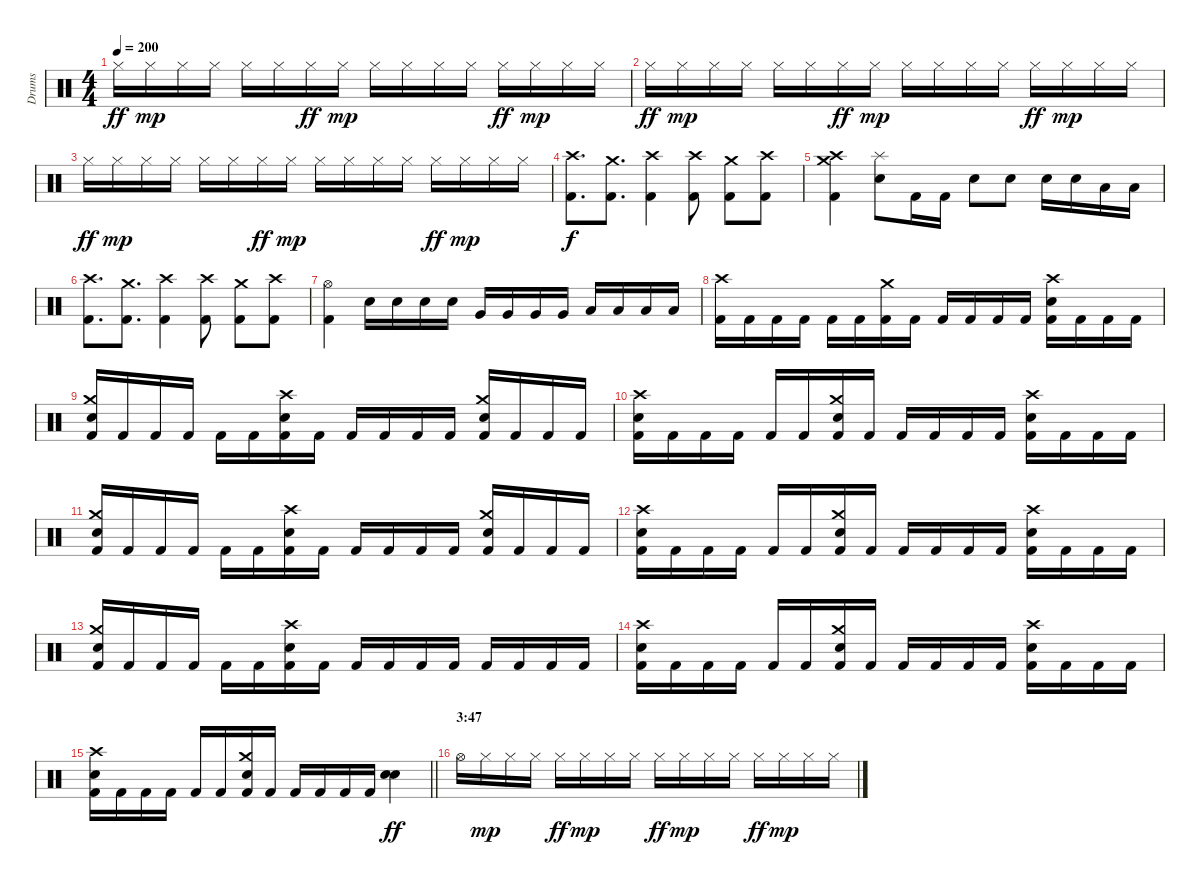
\track ("Drums" "Drums") {instrument percussion}
\staff {score}
\articulation defaults
\ts (4 4)
\tempo 200
\clef neutral
\ks c "Hi-Hat (closed)".16{dy ff} "Hi-Hat (closed)".16{dy mp} "Hi-Hat (closed)".16 "Hi-Hat (closed)".16 "Hi-Hat (closed)".16 "Hi-Hat (closed)".16 "Hi-Hat (closed)".16{dy ff} "Hi-Hat (closed)".16{dy mp} "Hi-Hat (closed)".16 "Hi-Hat (closed)".16 "Hi-Hat (closed)".16 "Hi-Hat (closed)".16 "Hi-Hat (closed)".16{dy ff} "Hi-Hat (closed)".16{dy mp} "Hi-Hat (closed)".16 "Hi-Hat (closed)".16
|
"Hi-Hat (closed)".16{dy ff} "Hi-Hat (closed)".16{dy mp} "Hi-Hat (closed)".16 "Hi-Hat (closed)".16 "Hi-Hat (closed)".16 "Hi-Hat (closed)".16 "Hi-Hat (closed)".16{dy ff} "Hi-Hat (closed)".16{dy mp} "Hi-Hat (closed)".16 "Hi-Hat (closed)".16 "Hi-Hat (closed)".16 "Hi-Hat (closed)".16 "Hi-Hat (closed)".16{dy ff} "Hi-Hat (closed)".16{dy mp} "Hi-Hat (closed)".16 "Hi-Hat (closed)".16 |
"Hi-Hat (closed)".16{dy ff} "Hi-Hat (closed)".16{dy mp} "Hi-Hat (closed)".16 "Hi-Hat (closed)".16 "Hi-Hat (closed)".16 "Hi-Hat (closed)".16 "Hi-Hat (closed)".16{dy ff} "Hi-Hat (closed)".16{dy mp} "Hi-Hat (closed)".16 "Hi-Hat (closed)".16 "Hi-Hat (closed)".16 "Hi-Hat (closed)".16 "Hi-Hat (closed)".16{dy ff} "Hi-Hat (closed)".16{dy mp} "Hi-Hat (closed)".16 "Hi-Hat (closed)".16 |
("Crash high (hit)" "Kick (hit) 2").8{d dy f} ("Crash medium (hit)" "Kick (hit) 2").8{d} ("Crash high (hit)" "Kick (hit) 2").4 ("Crash high (hit)" "Kick (hit) 2").8 ("Crash medium (hit)" "Kick (hit) 2").8 ("Crash high (hit)" "Kick (hit) 2").8 |
("Crash medium (hit)" "Crash high (hit)" "Kick (hit) 2").4 ("Splash (hit)" "Snare (hit) 2").8 "Kick (hit) 2".16 "Kick (hit) 2".16 "Snare (hit) 2".8 "Snare (hit) 2".8 "Snare (hit) 2".16 "Snare (hit) 2".16 "Low Tom (hit)".16 "Low Tom (hit)".16 |
("Crash high (hit)" "Kick (hit) 2").8{d} ("Crash medium (hit)" "Kick (hit) 2").8{d} ("Crash high (hit)" "Kick (hit) 2").4 ("Crash high (hit)" "Kick (hit) 2").8 ("Crash medium (hit)" "Kick (hit) 2").8 ("Crash high (hit)" "Kick (hit) 2").8 |
("Hi-Hat (open)" "Kick (hit) 2").4 "Snare (hit) 2".16 "Snare (hit) 2".16 "Snare (hit) 2".16 "Snare (hit) 2".16 "Very Low Tom (hit)".16 "Very Low Tom (hit)".16 "Very Low Tom (hit)".16 "Very Low Tom (hit)".16 "Low Floor Tom (hit)".16 "Low Floor Tom (hit)".16 "Low Floor Tom (hit)".16 "Low Floor Tom (hit)".16 |
("Crash high (hit)" "Kick (hit) 2").16 "Kick (hit) 2".16 "Kick (hit) 2".16 "Kick (hit) 2".16 "Kick (hit) 2".16 "Kick (hit) 2".16 ("Crash medium (hit)" "Kick (hit) 2").16 "Kick (hit) 2".16 "Kick (hit) 2".16 "Kick (hit) 2".16 "Kick (hit) 2".16 "Kick (hit) 2".16 ("Crash high (hit)" "Snare (hit) 2" "Kick (hit) 2").16 "Kick (hit) 2".16 "Kick (hit) 2".16 "Kick (hit) 2".16 |
("Crash medium (hit)" "Snare (hit) 2" "Kick (hit) 2").16 "Kick (hit) 2".16 "Kick (hit) 2".16 "Kick (hit) 2".16 "Kick (hit) 2".16 "Kick (hit) 2".16 ("Crash high (hit)" "Snare (hit) 2" "Kick (hit) 2").16 "Kick (hit) 2".16 "Kick (hit) 2".16 "Kick (hit) 2".16 "Kick (hit) 2".16 "Kick (hit) 2".16 ("Crash medium (hit)" "Snare (hit) 2" "Kick (hit) 2").16 "Kick (hit) 2".16 "Kick (hit) 2".16 "Kick (hit) 2".16 |
("Crash high (hit)" "Snare (hit) 2" "Kick (hit) 2").16 "Kick (hit) 2".16 "Kick (hit) 2".16 "Kick (hit) 2".16 "Kick (hit) 2".16 "Kick (hit) 2".16 ("Crash medium (hit)" "Snare (hit) 2" "Kick (hit) 2").16 "Kick (hit) 2".16 "Kick (hit) 2".16 "Kick (hit) 2".16 "Kick (hit) 2".16 "Kick (hit) 2".16 ("Crash high (hit)" "Snare (hit) 2" "Kick (hit) 2").16 "Kick (hit) 2".16 "Kick (hit) 2".16 "Kick (hit) 2".16 |
("Crash medium (hit)" "Snare (hit) 2" "Kick (hit) 2").16 "Kick (hit) 2".16 "Kick (hit) 2".16 "Kick (hit) 2".16 "Kick (hit) 2".16 "Kick (hit) 2".16 ("Crash high (hit)" "Snare (hit) 2" "Kick (hit) 2").16 "Kick (hit) 2".16 "Kick (hit) 2".16 "Kick (hit) 2".16 "Kick (hit) 2".16 "Kick (hit) 2".16 ("Crash medium (hit)" "Snare (hit) 2" "Kick (hit) 2").16 "Kick (hit) 2".16 "Kick (hit) 2".16 "Kick (hit) 2".16 |
("Crash high (hit)" "Snare (hit) 2" "Kick (hit) 2").16 "Kick (hit) 2".16 "Kick (hit) 2".16 "Kick (hit) 2".16 "Kick (hit) 2".16 "Kick (hit) 2".16 ("Crash medium (hit)" "Snare (hit) 2" "Kick (hit) 2").16 "Kick (hit) 2".16 "Kick (hit) 2".16 "Kick (hit) 2".16 "Kick (hit) 2".16 "Kick (hit) 2".16 ("Crash high (hit)" "Snare (hit) 2" "Kick (hit) 2").16 "Kick (hit) 2".16 "Kick (hit) 2".16 "Kick (hit) 2".16 |
("Crash medium (hit)" "Snare (hit) 2" "Kick (hit) 2").16 "Kick (hit) 2".16 "Kick (hit) 2".16 "Kick (hit) 2".16 "Kick (hit) 2".16 "Kick (hit) 2".16 ("Crash high (hit)" "Snare (hit) 2" "Kick (hit) 2").16 "Kick (hit) 2".16 "Kick (hit) 2".16 "Kick (hit) 2".16 "Kick (hit) 2".16 "Kick (hit) 2".16 "Kick (hit) 2".16 "Kick (hit) 2".16 "Kick (hit) 2".16 "Kick (hit) 2".16 |
("Crash high (hit)" "Snare (hit) 2" "Kick (hit) 2").16 "Kick (hit) 2".16 "Kick (hit) 2".16 "Kick (hit) 2".16 "Kick (hit) 2".16 "Kick (hit) 2".16 ("Crash medium (hit)" "Snare (hit) 2" "Kick (hit) 2").16 "Kick (hit) 2".16 "Kick (hit) 2".16 "Kick (hit) 2".16 "Kick (hit) 2".16 "Kick (hit) 2".16 ("Crash high (hit)" "Snare (hit) 2" "Kick (hit) 2").16 "Kick (hit) 2".16 "Kick (hit) 2".16 "Kick (hit) 2".16 |
\barLineRight lightlight
("Crash high (hit)" "Snare (hit) 2" "Kick (hit) 2").16 "Kick (hit) 2".16 "Kick (hit) 2".16 "Kick (hit) 2".16 "Kick (hit) 2".16 "Kick (hit) 2".16 ("Crash medium (hit)" "Snare (hit) 2" "Kick (hit) 2").16 "Kick (hit) 2".16 "Kick (hit) 2".16 "Kick (hit) 2".16 "Kick (hit) 2".16 "Kick (hit) 2".16 ("Snare (hit) 2" "Snare (hit) 2").4{dy ff} |
\section ("" "3:47")
"Hi-Hat (open)".16 "Hi-Hat (closed)".16{dy mp} "Hi-Hat (closed)".16 "Hi-Hat (closed)".16 "Hi-Hat (closed)".16{dy ff} "Hi-Hat (closed)".16{dy mp} "Hi-Hat (closed)".16 "Hi-Hat (closed)".16 "Hi-Hat (closed)".16{dy ff} "Hi-Hat (closed)".16{dy mp} "Hi-Hat (closed)".16 "Hi-Hat (closed)".16 "Hi-Hat (closed)".16{dy ff} "Hi-Hat (closed)".16{dy mp} "Hi-Hat (closed)".16 "Hi-Hat (closed)".16
